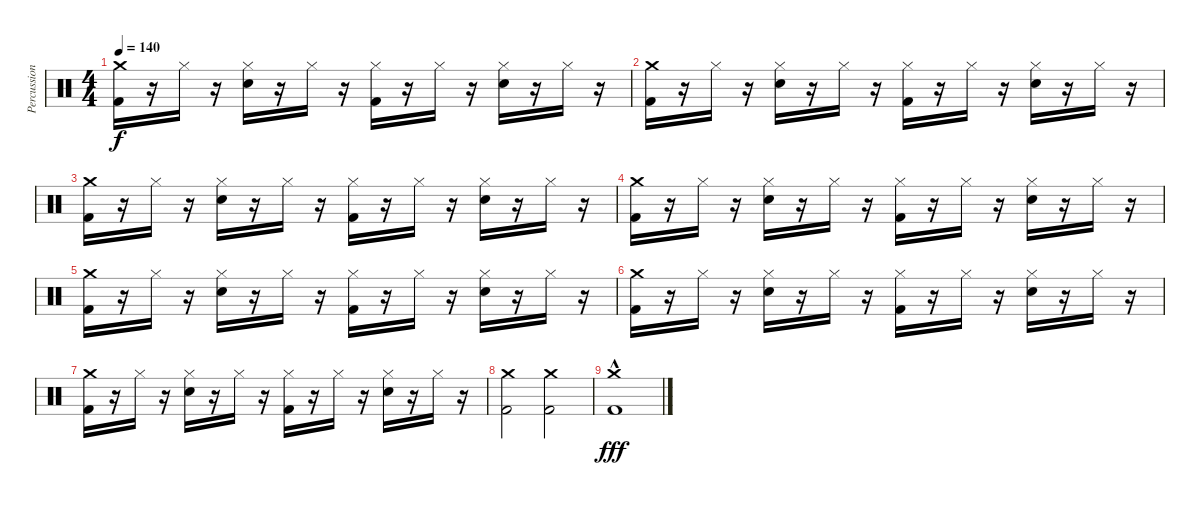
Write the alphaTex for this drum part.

\track ("Percussion" "Percussion") {instrument percussion}
\staff {score}
\articulation defaults
\ts (4 4)
\tempo 140
\clef neutral
\ks c
("Crash medium (hit)" "Kick (hit) 2").16{dy f} r.16 "Hi-Hat (closed)".16 r.16 ("Hi-Hat (closed)" "Snare (hit) 2").16 r.16 "Hi-Hat (closed)".16 r.16 ("Hi-Hat (closed)" "Kick (hit) 2").16 r.16 "Hi-Hat (closed)".16 r.16 ("Hi-Hat (closed)" "Snare (hit) 2").16 r.16 "Hi-Hat (closed)".16 r.16 |
("Crash medium (hit)" "Kick (hit) 2").16 r.16 "Hi-Hat (closed)".16 r.16 ("Hi-Hat (closed)" "Snare (hit) 2").16 r.16 "Hi-Hat (closed)".16 r.16 ("Hi-Hat (closed)" "Kick (hit) 2").16 r.16 "Hi-Hat (closed)".16 r.16 ("Hi-Hat (closed)" "Snare (hit) 2").16 r.16 "Hi-Hat (closed)".16 r.16 |
("Crash medium (hit)" "Kick (hit) 2").16 r.16 "Hi-Hat (closed)".16 r.16 ("Hi-Hat (closed)" "Snare (hit) 2").16 r.16 "Hi-Hat (closed)".16 r.16 ("Hi-Hat (closed)" "Kick (hit) 2").16 r.16 "Hi-Hat (closed)".16 r.16 ("Hi-Hat (closed)" "Snare (hit) 2").16 r.16 "Hi-Hat (closed)".16 r.16 |
("Crash medium (hit)" "Kick (hit) 2").16 r.16 "Hi-Hat (closed)".16 r.16 ("Hi-Hat (closed)" "Snare (hit) 2").16 r.16 "Hi-Hat (closed)".16 r.16 ("Hi-Hat (closed)" "Kick (hit) 2").16 r.16 "Hi-Hat (closed)".16 r.16 ("Hi-Hat (closed)" "Snare (hit) 2").16 r.16 "Hi-Hat (closed)".16 r.16 |
("Crash medium (hit)" "Kick (hit) 2").16 r.16 "Hi-Hat (closed)".16 r.16 ("Hi-Hat (closed)" "Snare (hit) 2").16 r.16 "Hi-Hat (closed)".16 r.16 ("Hi-Hat (closed)" "Kick (hit) 2").16 r.16 "Hi-Hat (closed)".16 r.16 ("Hi-Hat (closed)" "Snare (hit) 2").16 r.16 "Hi-Hat (closed)".16 r.16 |
("Crash medium (hit)" "Kick (hit) 2").16 r.16 "Hi-Hat (closed)".16 r.16 ("Hi-Hat (closed)" "Snare (hit) 2").16 r.16 "Hi-Hat (closed)".16 r.16 ("Hi-Hat (closed)" "Kick (hit) 2").16 r.16 "Hi-Hat (closed)".16 r.16 ("Hi-Hat (closed)" "Snare (hit) 2").16 r.16 "Hi-Hat (closed)".16 r.16 |
("Crash medium (hit)" "Kick (hit) 2").16 r.16 "Hi-Hat (closed)".16 r.16 ("Hi-Hat (closed)" "Snare (hit) 2").16 r.16 "Hi-Hat (closed)".16 r.16 ("Hi-Hat (closed)" "Kick (hit) 2").16 r.16 "Hi-Hat (closed)".16 r.16 ("Hi-Hat (closed)" "Snare (hit) 2").16 r.16 "Hi-Hat (closed)".16 r.16 |
("Crash medium (hit)" "Kick (hit) 2").2 ("Crash medium (hit)" "Kick (hit) 2").2 |
("Crash medium (hit)"{hac} "Kick (hit) 2").1{dy fff}
